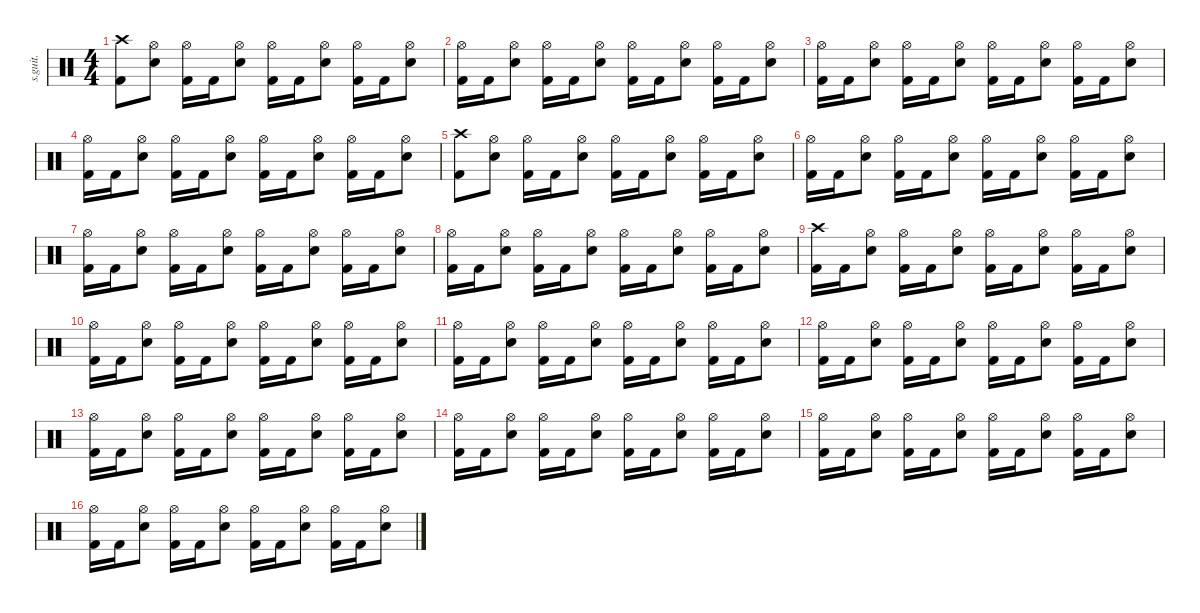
\defaultSystemsLayout 4
\hideDynamics
\bracketExtendMode nobrackets
\track ("" "s.guit.") {instrument percussion}
\staff {score}
\articulation defaults
\ts (4 4)
\beaming (8 2 2 2 2)
\tempo (160 hide)
\clef neutral
\ks c
("Crash high (hit)" "Kick (hit) 2").8{dy f} ("Hi-Hat (open)" "Snare (hit) 2").8 ("Hi-Hat (open)" "Kick (hit) 2").16 "Kick (hit) 2".16 ("Hi-Hat (open)" "Snare (hit) 2").8 ("Hi-Hat (open)" "Kick (hit) 2").16 "Kick (hit) 2".16 ("Hi-Hat (open)" "Snare (hit) 2").8 ("Hi-Hat (open)" "Kick (hit) 2").16 "Kick (hit) 2".16 ("Hi-Hat (open)" "Snare (hit) 2").8 |
("Hi-Hat (open)" "Kick (hit) 2").16 "Kick (hit) 2".16 ("Hi-Hat (open)" "Snare (hit) 2").8 ("Hi-Hat (open)" "Kick (hit) 2").16 "Kick (hit) 2".16 ("Hi-Hat (open)" "Snare (hit) 2").8 ("Hi-Hat (open)" "Kick (hit) 2").16 "Kick (hit) 2".16 ("Hi-Hat (open)" "Snare (hit) 2").8 ("Hi-Hat (open)" "Kick (hit) 2").16 "Kick (hit) 2".16 ("Hi-Hat (open)" "Snare (hit) 2").8 |
("Hi-Hat (open)" "Kick (hit) 2").16 "Kick (hit) 2".16 ("Hi-Hat (open)" "Snare (hit) 2").8 ("Hi-Hat (open)" "Kick (hit) 2").16 "Kick (hit) 2".16 ("Hi-Hat (open)" "Snare (hit) 2").8 ("Hi-Hat (open)" "Kick (hit) 2").16 "Kick (hit) 2".16 ("Hi-Hat (open)" "Snare (hit) 2").8 ("Hi-Hat (open)" "Kick (hit) 2").16 "Kick (hit) 2".16 ("Hi-Hat (open)" "Snare (hit) 2").8 |
("Hi-Hat (open)" "Kick (hit) 2").16 "Kick (hit) 2".16 ("Hi-Hat (open)" "Snare (hit) 2").8 ("Hi-Hat (open)" "Kick (hit) 2").16 "Kick (hit) 2".16 ("Hi-Hat (open)" "Snare (hit) 2").8 ("Hi-Hat (open)" "Kick (hit) 2").16 "Kick (hit) 2".16 ("Hi-Hat (open)" "Snare (hit) 2").8 ("Hi-Hat (open)" "Kick (hit) 2").16 "Kick (hit) 2".16 ("Hi-Hat (open)" "Snare (hit) 2").8 |
("Crash high (hit)" "Kick (hit) 2").8 ("Hi-Hat (open)" "Snare (hit) 2").8 ("Hi-Hat (open)" "Kick (hit) 2").16 "Kick (hit) 2".16 ("Hi-Hat (open)" "Snare (hit) 2").8 ("Hi-Hat (open)" "Kick (hit) 2").16 "Kick (hit) 2".16 ("Hi-Hat (open)" "Snare (hit) 2").8 ("Hi-Hat (open)" "Kick (hit) 2").16 "Kick (hit) 2".16 ("Hi-Hat (open)" "Snare (hit) 2").8 |
("Hi-Hat (open)" "Kick (hit) 2").16 "Kick (hit) 2".16 ("Hi-Hat (open)" "Snare (hit) 2").8 ("Hi-Hat (open)" "Kick (hit) 2").16 "Kick (hit) 2".16 ("Hi-Hat (open)" "Snare (hit) 2").8 ("Hi-Hat (open)" "Kick (hit) 2").16 "Kick (hit) 2".16 ("Hi-Hat (open)" "Snare (hit) 2").8 ("Hi-Hat (open)" "Kick (hit) 2").16 "Kick (hit) 2".16 ("Hi-Hat (open)" "Snare (hit) 2").8 |
("Hi-Hat (open)" "Kick (hit) 2").16 "Kick (hit) 2".16 ("Hi-Hat (open)" "Snare (hit) 2").8 ("Hi-Hat (open)" "Kick (hit) 2").16 "Kick (hit) 2".16 ("Hi-Hat (open)" "Snare (hit) 2").8 ("Hi-Hat (open)" "Kick (hit) 2").16 "Kick (hit) 2".16 ("Hi-Hat (open)" "Snare (hit) 2").8 ("Hi-Hat (open)" "Kick (hit) 2").16 "Kick (hit) 2".16 ("Hi-Hat (open)" "Snare (hit) 2").8 |
("Hi-Hat (open)" "Kick (hit) 2").16 "Kick (hit) 2".16 ("Hi-Hat (open)" "Snare (hit) 2").8 ("Hi-Hat (open)" "Kick (hit) 2").16 "Kick (hit) 2".16 ("Hi-Hat (open)" "Snare (hit) 2").8 ("Hi-Hat (open)" "Kick (hit) 2").16 "Kick (hit) 2".16 ("Hi-Hat (open)" "Snare (hit) 2").8 ("Hi-Hat (open)" "Kick (hit) 2").16 "Kick (hit) 2".16 ("Hi-Hat (open)" "Snare (hit) 2").8 |
("Crash high (hit)" "Kick (hit) 2").16 "Kick (hit) 2".16 ("Hi-Hat (open)" "Snare (hit) 2").8 ("Hi-Hat (open)" "Kick (hit) 2").16 "Kick (hit) 2".16 ("Hi-Hat (open)" "Snare (hit) 2").8 ("Hi-Hat (open)" "Kick (hit) 2").16 "Kick (hit) 2".16 ("Hi-Hat (open)" "Snare (hit) 2").8 ("Hi-Hat (open)" "Kick (hit) 2").16 "Kick (hit) 2".16 ("Hi-Hat (open)" "Snare (hit) 2").8 |
("Hi-Hat (open)" "Kick (hit) 2").16 "Kick (hit) 2".16 ("Hi-Hat (open)" "Snare (hit) 2").8 ("Hi-Hat (open)" "Kick (hit) 2").16 "Kick (hit) 2".16 ("Hi-Hat (open)" "Snare (hit) 2").8 ("Hi-Hat (open)" "Kick (hit) 2").16 "Kick (hit) 2".16 ("Hi-Hat (open)" "Snare (hit) 2").8 ("Hi-Hat (open)" "Kick (hit) 2").16 "Kick (hit) 2".16 ("Hi-Hat (open)" "Snare (hit) 2").8 |
("Hi-Hat (open)" "Kick (hit) 2").16 "Kick (hit) 2".16 ("Hi-Hat (open)" "Snare (hit) 2").8 ("Hi-Hat (open)" "Kick (hit) 2").16 "Kick (hit) 2".16 ("Hi-Hat (open)" "Snare (hit) 2").8 ("Hi-Hat (open)" "Kick (hit) 2").16 "Kick (hit) 2".16 ("Hi-Hat (open)" "Snare (hit) 2").8 ("Hi-Hat (open)" "Kick (hit) 2").16 "Kick (hit) 2".16 ("Hi-Hat (open)" "Snare (hit) 2").8 |
("Hi-Hat (open)" "Kick (hit) 2").16 "Kick (hit) 2".16 ("Hi-Hat (open)" "Snare (hit) 2").8 ("Hi-Hat (open)" "Kick (hit) 2").16 "Kick (hit) 2".16 ("Hi-Hat (open)" "Snare (hit) 2").8 ("Hi-Hat (open)" "Kick (hit) 2").16 "Kick (hit) 2".16 ("Hi-Hat (open)" "Snare (hit) 2").8 ("Hi-Hat (open)" "Kick (hit) 2").16 "Kick (hit) 2".16 ("Hi-Hat (open)" "Snare (hit) 2").8 |
("Hi-Hat (open)" "Kick (hit) 2").16 "Kick (hit) 2".16 ("Hi-Hat (open)" "Snare (hit) 2").8 ("Hi-Hat (open)" "Kick (hit) 2").16 "Kick (hit) 2".16 ("Hi-Hat (open)" "Snare (hit) 2").8 ("Hi-Hat (open)" "Kick (hit) 2").16 "Kick (hit) 2".16 ("Hi-Hat (open)" "Snare (hit) 2").8 ("Hi-Hat (open)" "Kick (hit) 2").16 "Kick (hit) 2".16 ("Hi-Hat (open)" "Snare (hit) 2").8 |
("Hi-Hat (open)" "Kick (hit) 2").16 "Kick (hit) 2".16 ("Hi-Hat (open)" "Snare (hit) 2").8 ("Hi-Hat (open)" "Kick (hit) 2").16 "Kick (hit) 2".16 ("Hi-Hat (open)" "Snare (hit) 2").8 ("Hi-Hat (open)" "Kick (hit) 2").16 "Kick (hit) 2".16 ("Hi-Hat (open)" "Snare (hit) 2").8 ("Hi-Hat (open)" "Kick (hit) 2").16 "Kick (hit) 2".16 ("Hi-Hat (open)" "Snare (hit) 2").8 |
("Hi-Hat (open)" "Kick (hit) 2").16 "Kick (hit) 2".16 ("Hi-Hat (open)" "Snare (hit) 2").8 ("Hi-Hat (open)" "Kick (hit) 2").16 "Kick (hit) 2".16 ("Hi-Hat (open)" "Snare (hit) 2").8 ("Hi-Hat (open)" "Kick (hit) 2").16 "Kick (hit) 2".16 ("Hi-Hat (open)" "Snare (hit) 2").8 ("Hi-Hat (open)" "Kick (hit) 2").16 "Kick (hit) 2".16 ("Hi-Hat (open)" "Snare (hit) 2").8 |
("Hi-Hat (open)" "Kick (hit) 2").16 "Kick (hit) 2".16 ("Hi-Hat (open)" "Snare (hit) 2").8 ("Hi-Hat (open)" "Kick (hit) 2").16 "Kick (hit) 2".16 ("Hi-Hat (open)" "Snare (hit) 2").8 ("Hi-Hat (open)" "Kick (hit) 2").16 "Kick (hit) 2".16 ("Hi-Hat (open)" "Snare (hit) 2").8 ("Hi-Hat (open)" "Kick (hit) 2").16 "Kick (hit) 2".16 ("Hi-Hat (open)" "Snare (hit) 2").8
